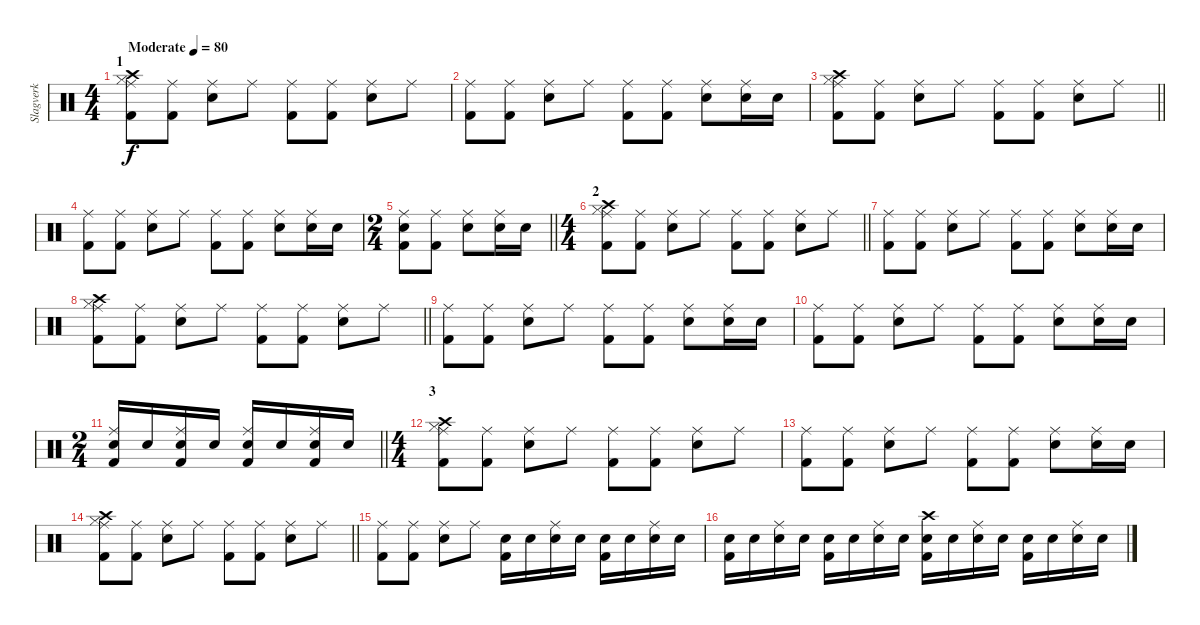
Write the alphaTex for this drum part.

\track ("Slagverk" "Slagverk") {instrument percussion}
\staff {score}
\articulation defaults
\ts (4 4)
\section ("" "1")
\tempo (80 "Moderate")
\clef neutral
\ks c
("Crash high (hit)" "Hi-Hat (closed)" "Kick (hit) 2" "Ride (middle)").8{dy f} ("Ride (middle)" "Kick (hit) 2").8 ("Snare (hit) 2" "Ride (middle)").8 "Ride (middle)".8 ("Ride (middle)" "Kick (hit) 2").8 ("Ride (middle)" "Kick (hit) 2").8 ("Snare (hit) 2" "Ride (middle)").8 "Ride (middle)".8 |
("Ride (middle)" "Kick (hit) 2").8 ("Ride (middle)" "Kick (hit) 2").8 ("Snare (hit) 2" "Ride (middle)").8 "Ride (middle)".8 ("Ride (middle)" "Kick (hit) 2").8 ("Ride (middle)" "Kick (hit) 2").8 ("Snare (hit) 2" "Ride (middle)").8 ("Snare (hit) 2" "Ride (middle)").16 "Snare (hit) 2".16 |
\barLineRight lightlight
("Crash high (hit)" "Hi-Hat (closed)" "Kick (hit) 2" "Ride (middle)").8 ("Ride (middle)" "Kick (hit) 2").8 ("Snare (hit) 2" "Ride (middle)").8 "Ride (middle)".8 ("Ride (middle)" "Kick (hit) 2").8 ("Ride (middle)" "Kick (hit) 2").8 ("Snare (hit) 2" "Ride (middle)").8 "Ride (middle)".8 |
("Ride (middle)" "Kick (hit) 2").8 ("Ride (middle)" "Kick (hit) 2").8 ("Snare (hit) 2" "Ride (middle)").8 "Ride (middle)".8 ("Ride (middle)" "Kick (hit) 2").8 ("Ride (middle)" "Kick (hit) 2").8 ("Snare (hit) 2" "Ride (middle)").8 ("Snare (hit) 2" "Ride (middle)").16 "Snare (hit) 2".16 |
\ts (2 4)
\barLineRight lightlight
("Snare (hit) 2" "Ride (middle)" "Kick (hit) 2").8 ("Ride (middle)" "Kick (hit) 2").8 ("Snare (hit) 2" "Ride (middle)").8 ("Snare (hit) 2" "Ride (middle)").16 "Snare (hit) 2".16 |
\ts (4 4)
\section ("" "2")
\barLineRight lightlight
("Crash high (hit)" "Hi-Hat (closed)" "Kick (hit) 2" "Ride (middle)").8 ("Ride (middle)" "Kick (hit) 2").8 ("Snare (hit) 2" "Ride (middle)").8 "Ride (middle)".8 ("Ride (middle)" "Kick (hit) 2").8 ("Ride (middle)" "Kick (hit) 2").8 ("Snare (hit) 2" "Ride (middle)").8 "Ride (middle)".8 |
("Ride (middle)" "Kick (hit) 2").8 ("Ride (middle)" "Kick (hit) 2").8 ("Snare (hit) 2" "Ride (middle)").8 "Ride (middle)".8 ("Ride (middle)" "Kick (hit) 2").8 ("Ride (middle)" "Kick (hit) 2").8 ("Snare (hit) 2" "Ride (middle)").8 ("Snare (hit) 2" "Ride (middle)").16 "Snare (hit) 2".16 |
\barLineRight lightlight
("Crash high (hit)" "Hi-Hat (closed)" "Kick (hit) 2" "Ride (middle)").8 ("Ride (middle)" "Kick (hit) 2").8 ("Snare (hit) 2" "Ride (middle)").8 "Ride (middle)".8 ("Ride (middle)" "Kick (hit) 2").8 ("Ride (middle)" "Kick (hit) 2").8 ("Snare (hit) 2" "Ride (middle)").8 "Ride (middle)".8 |
("Ride (middle)" "Kick (hit) 2").8 ("Ride (middle)" "Kick (hit) 2").8 ("Snare (hit) 2" "Ride (middle)").8 "Ride (middle)".8 ("Ride (middle)" "Kick (hit) 2").8 ("Ride (middle)" "Kick (hit) 2").8 ("Snare (hit) 2" "Ride (middle)").8 ("Snare (hit) 2" "Ride (middle)").16 "Snare (hit) 2".16 |
("Ride (middle)" "Kick (hit) 2").8 ("Ride (middle)" "Kick (hit) 2").8 ("Snare (hit) 2" "Ride (middle)").8 "Ride (middle)".8 ("Ride (middle)" "Kick (hit) 2").8 ("Ride (middle)" "Kick (hit) 2").8 ("Snare (hit) 2" "Ride (middle)").8 ("Snare (hit) 2" "Ride (middle)").16 "Snare (hit) 2".16 |
\ts (2 4)
\barLineRight lightlight
("Snare (hit) 2" "Ride (middle)" "Kick (hit) 2").16 "Snare (hit) 2".16 ("Snare (hit) 2" "Ride (middle)" "Kick (hit) 2").16 "Snare (hit) 2".16 ("Snare (hit) 2" "Ride (middle)" "Kick (hit) 2").16 "Snare (hit) 2".16 ("Snare (hit) 2" "Ride (middle)" "Kick (hit) 2").16 "Snare (hit) 2".16 |
\ts (4 4)
\section ("" "3")
("Crash high (hit)" "Hi-Hat (closed)" "Kick (hit) 2" "Ride (middle)").8 ("Ride (middle)" "Kick (hit) 2").8 ("Snare (hit) 2" "Ride (middle)").8 "Ride (middle)".8 ("Ride (middle)" "Kick (hit) 2").8 ("Ride (middle)" "Kick (hit) 2").8 ("Snare (hit) 2" "Ride (middle)").8 "Ride (middle)".8 |
("Ride (middle)" "Kick (hit) 2").8 ("Ride (middle)" "Kick (hit) 2").8 ("Snare (hit) 2" "Ride (middle)").8 "Ride (middle)".8 ("Ride (middle)" "Kick (hit) 2").8 ("Ride (middle)" "Kick (hit) 2").8 ("Snare (hit) 2" "Ride (middle)").8 ("Snare (hit) 2" "Ride (middle)").16 "Snare (hit) 2".16 |
\barLineRight lightlight
("Crash high (hit)" "Hi-Hat (closed)" "Kick (hit) 2" "Ride (middle)").8 ("Ride (middle)" "Kick (hit) 2").8 ("Snare (hit) 2" "Ride (middle)").8 "Ride (middle)".8 ("Ride (middle)" "Kick (hit) 2").8 ("Ride (middle)" "Kick (hit) 2").8 ("Snare (hit) 2" "Ride (middle)").8 "Ride (middle)".8 |
("Ride (middle)" "Kick (hit) 2").8 ("Ride (middle)" "Kick (hit) 2").8 ("Snare (hit) 2" "Ride (middle)").8 "Ride (middle)".8 ("Snare (hit) 2" "Kick (hit) 2").16 "Snare (hit) 2".16 ("Snare (hit) 2" "Ride (middle)").16 "Snare (hit) 2".16 ("Snare (hit) 2" "Kick (hit) 2").16 "Snare (hit) 2".16 ("Snare (hit) 2" "Ride (middle)").16 "Snare (hit) 2".16 |
("Snare (hit) 2" "Kick (hit) 2").16 "Snare (hit) 2".16 ("Snare (hit) 2" "Ride (middle)").16 "Snare (hit) 2".16 ("Snare (hit) 2" "Kick (hit) 2").16 "Snare (hit) 2".16 ("Snare (hit) 2" "Ride (middle)").16 "Snare (hit) 2".16 ("Snare (hit) 2" "Crash high (hit)" "Kick (hit) 2").16 "Snare (hit) 2".16 ("Snare (hit) 2" "Ride (middle)").16 "Snare (hit) 2".16 ("Snare (hit) 2" "Kick (hit) 2").16 "Snare (hit) 2".16 ("Snare (hit) 2" "Ride (middle)").16 "Snare (hit) 2".16
